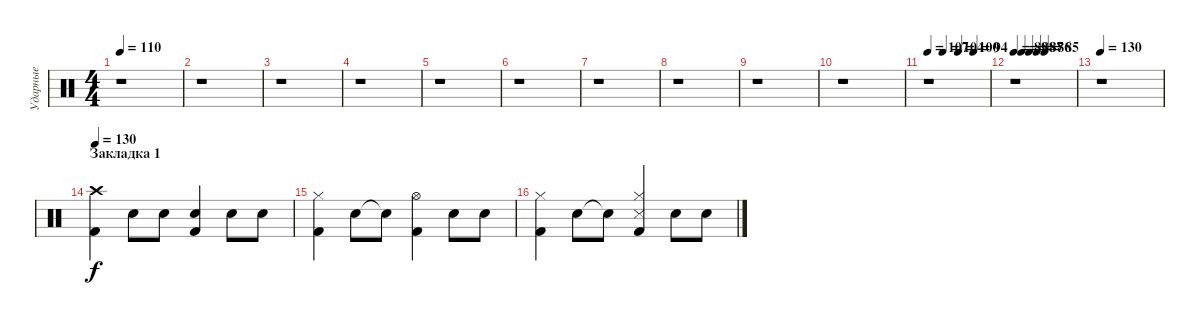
\track ("Ударные" "Ударные") {instrument percussion}
\staff {score}
\articulation defaults
\ts (4 4)
\tempo 110
\clef neutral
\ks c
r.1{dy f} |
r.1 |
r.1 |
r.1 |
r.1 |
r.1 |
r.1 |
r.1 |
r.1 |
r.1 |
\tempo 107
\tempo (104 0.25)
\tempo (100 0.5)
\tempo (94 0.75)
r.1 |
\tempo 90
\tempo 89
\tempo (88 0.125)
\tempo (87 0.25)
\tempo (86 0.375)
\tempo (85 0.5)
r.1 |
\tempo 130
r.1 |
\section ("" "Закладка 1")
\tempo 130
("Crash high (hit)" "Kick (hit) 2").4 "Snare (hit) 2".8 "Snare (hit) 2".8 ("Snare (hit) 2" "Kick (hit) 2").4 "Snare (hit) 2".8 "Snare (hit) 2".8 |
("Hi-Hat (closed)" "Kick (hit) 2").4 "Snare (hit) 2".8 "Snare (hit) 2"{t}.8 ("Hi-Hat (open)" "Kick (hit) 2").4 "Snare (hit) 2".8 "Snare (hit) 2".8 |
("Hi-Hat (closed)" "Kick (hit) 2").4 "Snare (hit) 2".8 "Snare (hit) 2"{t}.8 ("Hi-Hat (closed)" "Snare (side stick) 3" "Kick (hit) 2").4 "Snare (hit) 2".8 "Snare (hit) 2".8
